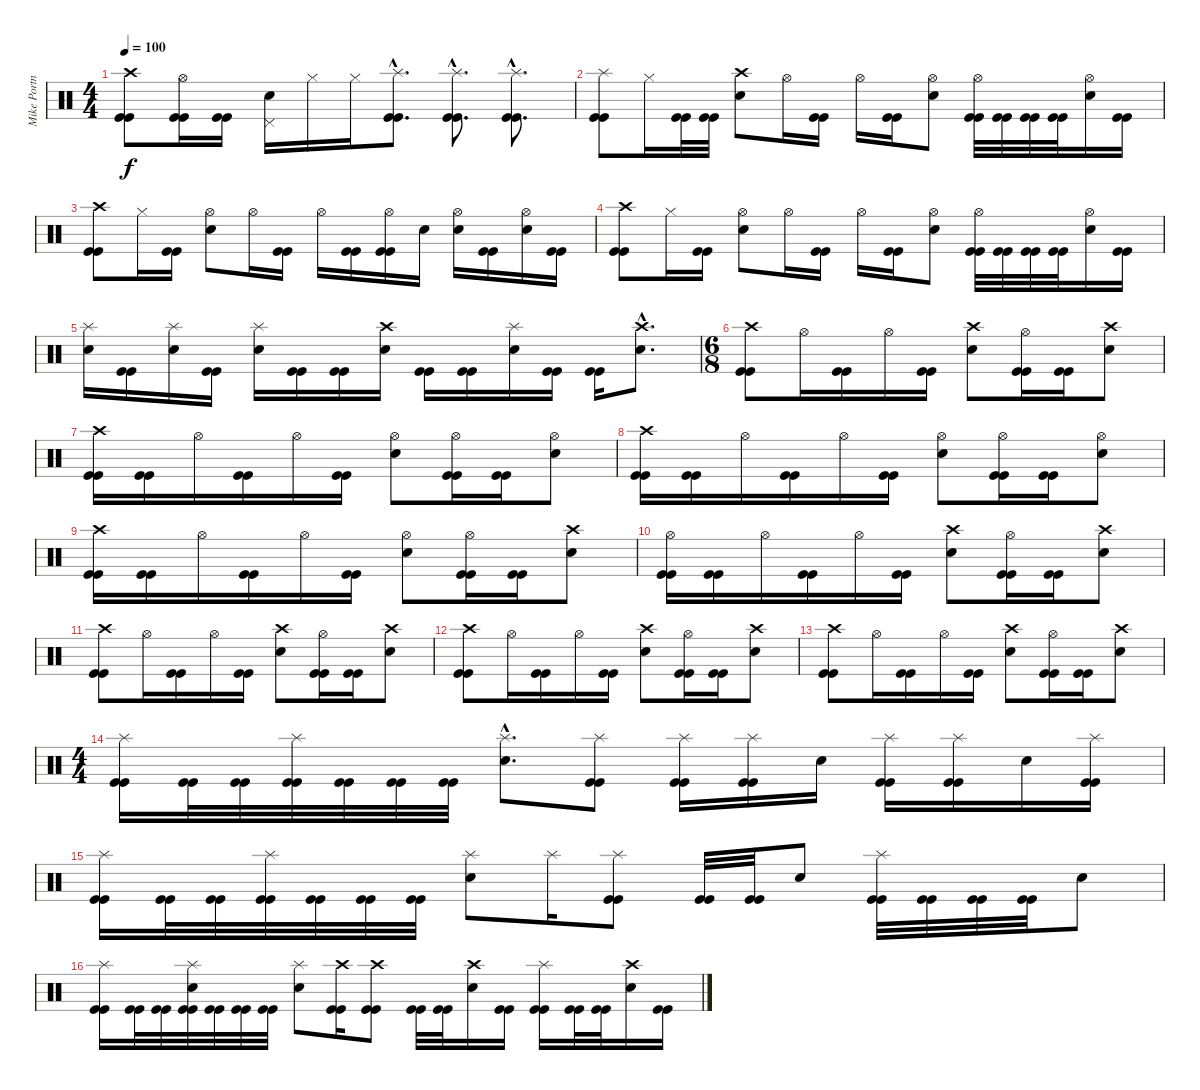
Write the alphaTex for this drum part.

\track ("Mike Portnoy - Drum" "Mike Portn") {instrument percussion}
\staff {score}
\articulation defaults
\ts (4 4)
\tempo 100
\clef neutral
\ks c
("Crash high (hit)" "Kick (hit)" "Kick (hit)").8{dy f} ("Hi-Hat (open)" "Kick (hit)" "Kick (hit)").16 ("Kick (hit)" "Kick (hit)").16 ("Pedal Hi-Hat (hit)" "Snare (hit) 2").16 "Hi-Hat (closed)".16 "Hi-Hat (closed)".16 ("Splash (hit)"{hac} "Kick (hit)"{hac} "Kick (hit)"{hac}).8{d} ("Splash (hit)"{hac} "Kick (hit)"{hac} "Kick (hit)"{hac}).8{d} ("Splash (hit)"{hac} "Kick (hit)"{hac} "Kick (hit)"{hac}).8{d} |
("Splash (hit)" "Kick (hit)" "Kick (hit)").8 "Hi-Hat (closed)".16 ("Kick (hit)" "Kick (hit)").32 ("Kick (hit)" "Kick (hit)").32 ("Crash high (hit)" "Snare (hit) 2").8 "Hi-Hat (open)".16 ("Kick (hit)" "Kick (hit)").16 "Hi-Hat (open)".16 ("Kick (hit)" "Kick (hit)").16 ("Hi-Hat (open)" "Snare (hit) 2").8 ("Hi-Hat (open)" "Kick (hit)" "Kick (hit)").32 ("Kick (hit)" "Kick (hit)").32 ("Kick (hit)" "Kick (hit)").32 ("Kick (hit)" "Kick (hit)").32 ("Hi-Hat (open)" "Snare (hit) 2").16 ("Kick (hit)" "Kick (hit)").16 |
("Crash high (hit)" "Kick (hit)" "Kick (hit)").8 "Hi-Hat (closed)".16 ("Kick (hit)" "Kick (hit)").16 ("Hi-Hat (open)" "Snare (hit) 2").8 "Hi-Hat (open)".16 ("Kick (hit)" "Kick (hit)").16 "Hi-Hat (open)".16 ("Kick (hit)" "Kick (hit)").16 ("Hi-Hat (open)" "Kick (hit)" "Kick (hit)").16 "Snare (hit) 2".16 ("Hi-Hat (open)" "Snare (hit) 2").16 ("Kick (hit)" "Kick (hit)").16 ("Hi-Hat (open)" "Snare (hit) 2").16 ("Kick (hit)" "Kick (hit)").16 |
("Crash high (hit)" "Kick (hit)" "Kick (hit)").8 "Hi-Hat (closed)".16 ("Kick (hit)" "Kick (hit)").16 ("Hi-Hat (open)" "Snare (hit) 2").8 "Hi-Hat (open)".16 ("Kick (hit)" "Kick (hit)").16 "Hi-Hat (open)".16 ("Kick (hit)" "Kick (hit)").16 ("Hi-Hat (open)" "Snare (hit) 2").8 ("Hi-Hat (open)" "Kick (hit)" "Kick (hit)").32 ("Kick (hit)" "Kick (hit)").32 ("Kick (hit)" "Kick (hit)").32 ("Kick (hit)" "Kick (hit)").32 ("Hi-Hat (open)" "Snare (hit) 2").16 ("Kick (hit)" "Kick (hit)").16 |
("Splash (hit)" "Snare (hit) 2").16 ("Kick (hit)" "Kick (hit)").16 ("Splash (hit)" "Snare (hit) 2").16 ("Kick (hit)" "Kick (hit)").16 ("Splash (hit)" "Snare (hit) 2").16 ("Kick (hit)" "Kick (hit)").16 ("Kick (hit)" "Kick (hit)").16 ("Crash high (hit)" "Snare (hit) 2").16 ("Kick (hit)" "Kick (hit)").16 ("Kick (hit)" "Kick (hit)").16 ("Splash (hit)" "Snare (hit) 2").16 ("Kick (hit)" "Kick (hit)").16 ("Kick (hit)" "Kick (hit)").16 ("Crash high (hit)"{hac} "Snare (hit) 2"{hac}).8{d} |
\ts (6 8)
("Crash high (hit)" "Kick (hit)" "Kick (hit)").8 "Hi-Hat (open)".16 ("Kick (hit)" "Kick (hit)").16 "Hi-Hat (open)".16 ("Kick (hit)" "Kick (hit)").16 ("Crash high (hit)" "Snare (hit) 2").8 ("Hi-Hat (open)" "Kick (hit)" "Kick (hit)").16 ("Kick (hit)" "Kick (hit)").16 ("Crash high (hit)" "Snare (hit) 2").8 |
("Crash high (hit)" "Kick (hit)" "Kick (hit)").16 ("Kick (hit)" "Kick (hit)").16 "Hi-Hat (open)".16 ("Kick (hit)" "Kick (hit)").16 "Hi-Hat (open)".16 ("Kick (hit)" "Kick (hit)").16 ("Hi-Hat (open)" "Snare (hit) 2").8 ("Hi-Hat (open)" "Kick (hit)" "Kick (hit)").16 ("Kick (hit)" "Kick (hit)").16 ("Hi-Hat (open)" "Snare (hit) 2").8 |
("Crash high (hit)" "Kick (hit)" "Kick (hit)").16 ("Kick (hit)" "Kick (hit)").16 "Hi-Hat (open)".16 ("Kick (hit)" "Kick (hit)").16 "Hi-Hat (open)".16 ("Kick (hit)" "Kick (hit)").16 ("Hi-Hat (open)" "Snare (hit) 2").8 ("Hi-Hat (open)" "Kick (hit)" "Kick (hit)").16 ("Kick (hit)" "Kick (hit)").16 ("Hi-Hat (open)" "Snare (hit) 2").8 |
("Crash high (hit)" "Kick (hit)" "Kick (hit)").16 ("Kick (hit)" "Kick (hit)").16 "Hi-Hat (open)".16 ("Kick (hit)" "Kick (hit)").16 "Hi-Hat (open)".16 ("Kick (hit)" "Kick (hit)").16 ("Hi-Hat (open)" "Snare (hit) 2").8 ("Hi-Hat (open)" "Kick (hit)" "Kick (hit)").16 ("Kick (hit)" "Kick (hit)").16 ("Crash high (hit)" "Snare (hit) 2").8 |
("Hi-Hat (open)" "Kick (hit)" "Kick (hit)").16 ("Kick (hit)" "Kick (hit)").16 "Hi-Hat (open)".16 ("Kick (hit)" "Kick (hit)").16 "Hi-Hat (open)".16 ("Kick (hit)" "Kick (hit)").16 ("Crash high (hit)" "Snare (hit) 2").8 ("Hi-Hat (open)" "Kick (hit)" "Kick (hit)").16 ("Kick (hit)" "Kick (hit)").16 ("Crash high (hit)" "Snare (hit) 2").8 |
("Crash high (hit)" "Kick (hit)" "Kick (hit)").8 "Hi-Hat (open)".16 ("Kick (hit)" "Kick (hit)").16 "Hi-Hat (open)".16 ("Kick (hit)" "Kick (hit)").16 ("Crash high (hit)" "Snare (hit) 2").8 ("Hi-Hat (open)" "Kick (hit)" "Kick (hit)").16 ("Kick (hit)" "Kick (hit)").16 ("Crash high (hit)" "Snare (hit) 2").8 |
("Crash high (hit)" "Kick (hit)" "Kick (hit)").8 "Hi-Hat (open)".16 ("Kick (hit)" "Kick (hit)").16 "Hi-Hat (open)".16 ("Kick (hit)" "Kick (hit)").16 ("Crash high (hit)" "Snare (hit) 2").8 ("Hi-Hat (open)" "Kick (hit)" "Kick (hit)").16 ("Kick (hit)" "Kick (hit)").16 ("Crash high (hit)" "Snare (hit) 2").8 |
("Crash high (hit)" "Kick (hit)" "Kick (hit)").8 "Hi-Hat (open)".16 ("Kick (hit)" "Kick (hit)").16 "Hi-Hat (open)".16 ("Kick (hit)" "Kick (hit)").16 ("Crash high (hit)" "Snare (hit) 2").8 ("Hi-Hat (open)" "Kick (hit)" "Kick (hit)").16 ("Kick (hit)" "Kick (hit)").16 ("Crash high (hit)" "Snare (hit) 2").8 |
\ts (4 4)
("Splash (hit)" "Kick (hit)" "Kick (hit)").16 ("Kick (hit)" "Kick (hit)").32 ("Kick (hit)" "Kick (hit)").32 ("Splash (hit)" "Kick (hit)" "Kick (hit)").32 ("Kick (hit)" "Kick (hit)").32 ("Kick (hit)" "Kick (hit)").32 ("Kick (hit)" "Kick (hit)").32 ("Splash (hit)"{hac} "Snare (hit) 2"{hac}).8{d} ("Splash (hit)" "Kick (hit)" "Kick (hit)").8 ("Splash (hit)" "Kick (hit)" "Kick (hit)").16 ("Splash (hit)" "Kick (hit)" "Kick (hit)").16 "Snare (hit) 2".16 ("Splash (hit)" "Kick (hit)" "Kick (hit)").16 ("Splash (hit)" "Kick (hit)" "Kick (hit)").16 "Snare (hit) 2".16 ("Splash (hit)" "Kick (hit)" "Kick (hit)").16 |
("Splash (hit)" "Kick (hit)" "Kick (hit)").16 ("Kick (hit)" "Kick (hit)").32 ("Kick (hit)" "Kick (hit)").32 ("Splash (hit)" "Kick (hit)" "Kick (hit)").32 ("Kick (hit)" "Kick (hit)").32 ("Kick (hit)" "Kick (hit)").32 ("Kick (hit)" "Kick (hit)").32 ("Splash (hit)" "Snare (hit) 2").8 "Splash (hit)".16 ("Splash (hit)" "Kick (hit)" "Kick (hit)").8 ("Kick (hit)" "Kick (hit)").32 ("Kick (hit)" "Kick (hit)").32 "Snare (hit) 2".8 ("Splash (hit)" "Kick (hit)" "Kick (hit)").32 ("Kick (hit)" "Kick (hit)").32 ("Kick (hit)" "Kick (hit)").32 ("Kick (hit)" "Kick (hit)").32 "Snare (hit) 2".8 |
("Splash (hit)" "Kick (hit)" "Kick (hit)").16 ("Kick (hit)" "Kick (hit)").32 ("Kick (hit)" "Kick (hit)").32 ("Splash (hit)" "Snare (hit) 2" "Kick (hit)" "Kick (hit)").32 ("Kick (hit)" "Kick (hit)").32 ("Kick (hit)" "Kick (hit)").32 ("Kick (hit)" "Kick (hit)").32 ("Splash (hit)" "Snare (hit) 2").8 ("Crash high (hit)" "Kick (hit)" "Kick (hit)").16 ("Crash high (hit)" "Kick (hit)" "Kick (hit)").8 ("Kick (hit)" "Kick (hit)").32 ("Kick (hit)" "Kick (hit)").32 ("Crash high (hit)" "Snare (hit) 2").16 ("Kick (hit)" "Kick (hit)").16 ("Splash (hit)" "Kick (hit)" "Kick (hit)").16 ("Kick (hit)" "Kick (hit)").32 ("Kick (hit)" "Kick (hit)").32 ("Crash high (hit)" "Snare (hit) 2").16 ("Kick (hit)" "Kick (hit)").16
